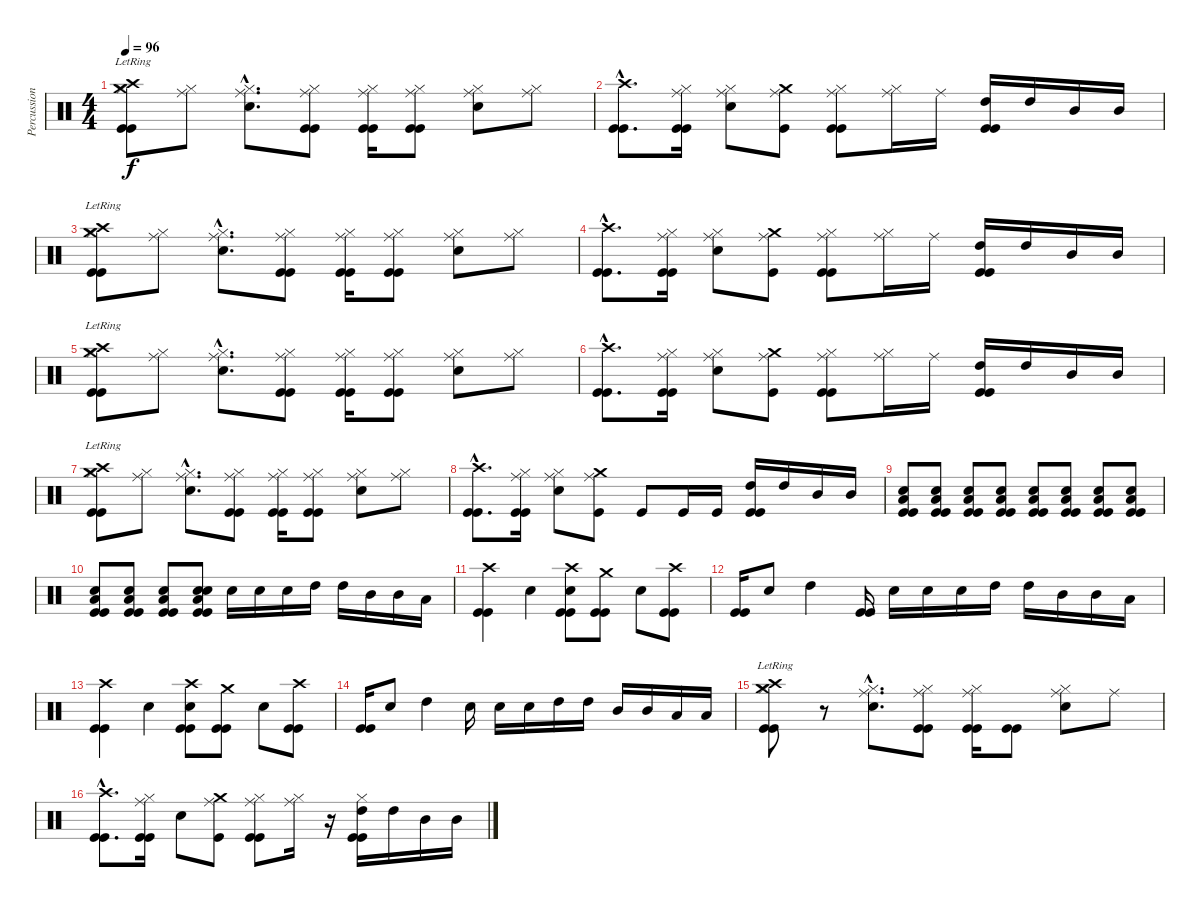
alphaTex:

\track ("Percussion" "Percussion") {instrument percussion}
\staff {score}
\articulation defaults
\ts (4 4)
\tempo 96
\clef neutral
\ks c
("Hi-Hat (closed)" "Kick (hit)" "Kick (hit)" "Crash high (hit)"{lr} "Crash medium (hit)"{lr}).8{dy f} ("Hi-Hat (closed)" "Ride (middle)").8 ("Hi-Hat (closed)"{hac} "Snare (hit) 2"{hac} "Ride (middle)"{hac}).8{d} ("Hi-Hat (closed)" "Kick (hit)" "Kick (hit)" "Ride (middle)").8 ("Hi-Hat (closed)" "Kick (hit)" "Kick (hit)" "Ride (middle)").16 ("Hi-Hat (closed)" "Kick (hit)" "Kick (hit)" "Ride (middle)").8 ("Hi-Hat (closed)" "Snare (hit) 2" "Ride (middle)").8 ("Hi-Hat (closed)" "Ride (middle)").8 |
("Kick (hit)"{hac} "Kick (hit)"{hac} "Crash high (hit)"{hac}).8{d} ("Hi-Hat (closed)" "Kick (hit)" "Kick (hit)" "Ride (middle)").16 ("Hi-Hat (closed)" "Snare (hit) 2" "Ride (middle)").8 ("Crash medium (hit)" "Kick (hit)" "Ride (middle)").8 ("Hi-Hat (closed)" "Kick (hit)" "Kick (hit)" "Ride (middle)").8 ("Hi-Hat (closed)" "Ride (middle)").16 "Ride (middle)".16 ("Kick (hit)" "Kick (hit)" "High Tom (hit)").16 "High Tom (hit)".16 "Mid Tom (hit)".16 "Mid Tom (hit)".16 |
("Hi-Hat (closed)" "Kick (hit)" "Kick (hit)" "Crash high (hit)"{lr} "Crash medium (hit)"{lr}).8 ("Hi-Hat (closed)" "Ride (middle)").8 ("Hi-Hat (closed)"{hac} "Snare (hit) 2"{hac} "Ride (middle)"{hac}).8{d} ("Hi-Hat (closed)" "Kick (hit)" "Kick (hit)" "Ride (middle)").8 ("Hi-Hat (closed)" "Kick (hit)" "Kick (hit)" "Ride (middle)").16 ("Hi-Hat (closed)" "Kick (hit)" "Kick (hit)" "Ride (middle)").8 ("Hi-Hat (closed)" "Snare (hit) 2" "Ride (middle)").8 ("Hi-Hat (closed)" "Ride (middle)").8 |
("Kick (hit)"{hac} "Kick (hit)"{hac} "Crash high (hit)"{hac}).8{d} ("Hi-Hat (closed)" "Kick (hit)" "Kick (hit)" "Ride (middle)").16 ("Hi-Hat (closed)" "Snare (hit) 2" "Ride (middle)").8 ("Crash medium (hit)" "Kick (hit)" "Ride (middle)").8 ("Hi-Hat (closed)" "Kick (hit)" "Kick (hit)" "Ride (middle)").8 ("Hi-Hat (closed)" "Ride (middle)").16 "Ride (middle)".16 ("Kick (hit)" "Kick (hit)" "High Tom (hit)").16 "High Tom (hit)".16 "Mid Tom (hit)".16 "Mid Tom (hit)".16 |
("Hi-Hat (closed)" "Kick (hit)" "Kick (hit)" "Crash high (hit)"{lr} "Crash medium (hit)"{lr}).8 ("Hi-Hat (closed)" "Ride (middle)").8 ("Hi-Hat (closed)"{hac} "Snare (hit) 2"{hac} "Ride (middle)"{hac}).8{d} ("Hi-Hat (closed)" "Kick (hit)" "Kick (hit)" "Ride (middle)").8 ("Hi-Hat (closed)" "Kick (hit)" "Kick (hit)" "Ride (middle)").16 ("Hi-Hat (closed)" "Kick (hit)" "Kick (hit)" "Ride (middle)").8 ("Hi-Hat (closed)" "Snare (hit) 2" "Ride (middle)").8 ("Hi-Hat (closed)" "Ride (middle)").8 |
("Kick (hit)"{hac} "Kick (hit)"{hac} "Crash high (hit)"{hac}).8{d} ("Hi-Hat (closed)" "Kick (hit)" "Kick (hit)" "Ride (middle)").16 ("Hi-Hat (closed)" "Snare (hit) 2" "Ride (middle)").8 ("Crash medium (hit)" "Kick (hit)" "Ride (middle)").8 ("Hi-Hat (closed)" "Kick (hit)" "Kick (hit)" "Ride (middle)").8 ("Hi-Hat (closed)" "Ride (middle)").16 "Ride (middle)".16 ("Kick (hit)" "Kick (hit)" "High Tom (hit)").16 "High Tom (hit)".16 "Mid Tom (hit)".16 "Mid Tom (hit)".16 |
("Hi-Hat (closed)" "Kick (hit)" "Kick (hit)" "Crash high (hit)"{lr} "Crash medium (hit)"{lr}).8 ("Hi-Hat (closed)" "Ride (middle)").8 ("Hi-Hat (closed)"{hac} "Snare (hit) 2"{hac} "Ride (middle)"{hac}).8{d} ("Hi-Hat (closed)" "Kick (hit)" "Kick (hit)" "Ride (middle)").8 ("Hi-Hat (closed)" "Kick (hit)" "Kick (hit)" "Ride (middle)").16 ("Hi-Hat (closed)" "Kick (hit)" "Kick (hit)" "Ride (middle)").8 ("Hi-Hat (closed)" "Snare (hit) 2" "Ride (middle)").8 ("Hi-Hat (closed)" "Ride (middle)").8 |
("Kick (hit)"{hac} "Kick (hit)"{hac} "Crash high (hit)"{hac}).8{d} ("Hi-Hat (closed)" "Kick (hit)" "Kick (hit)" "Ride (middle)").16 ("Hi-Hat (closed)" "Snare (hit) 2" "Ride (middle)").8 ("Crash medium (hit)" "Kick (hit)" "Ride (middle)").8 "Kick (hit)".8 "Kick (hit)".16 "Kick (hit)".16 ("Kick (hit)" "Kick (hit)" "High Tom (hit)").16 "High Tom (hit)".16 "Mid Tom (hit)".16 "Mid Tom (hit)".16 |
("Snare (hit) 2" "Low Floor Tom (hit)" "Kick (hit)" "Kick (hit)").8 ("Snare (hit) 2" "Low Floor Tom (hit)" "Kick (hit)" "Kick (hit)").8 ("Snare (hit) 2" "Low Floor Tom (hit)" "Kick (hit)" "Kick (hit)").8 ("Snare (hit) 2" "Low Floor Tom (hit)" "Kick (hit)" "Kick (hit)").8 ("Snare (hit) 2" "Low Floor Tom (hit)" "Kick (hit)" "Kick (hit)").8 ("Snare (hit) 2" "Low Floor Tom (hit)" "Kick (hit)" "Kick (hit)").8 ("Snare (hit) 2" "Low Floor Tom (hit)" "Kick (hit)" "Kick (hit)").8 ("Snare (hit) 2" "Low Floor Tom (hit)" "Kick (hit)" "Kick (hit)").8 |
("Snare (hit) 2" "Low Floor Tom (hit)" "Kick (hit)" "Kick (hit)").8 ("Snare (hit) 2" "Low Floor Tom (hit)" "Kick (hit)" "Kick (hit)").8 ("Snare (hit) 2" "Low Floor Tom (hit)" "Kick (hit)" "Kick (hit)").8 ("Snare (hit) 2" "Snare (hit) 2" "Low Floor Tom (hit)" "Kick (hit)" "Kick (hit)").8 "Snare (hit) 2".16 "Snare (hit) 2".16 "Snare (hit) 2".16 "High Tom (hit)".16 "High Tom (hit)".16 "Mid Tom (hit)".16 "Mid Tom (hit)".16 "Low Floor Tom (hit)".16 |
("Crash high (hit)" "Kick (hit)" "Kick (hit)").4 "Snare (hit) 2".4 ("Snare (hit) 2" "Crash high (hit)" "Kick (hit)" "Kick (hit)").8 ("Crash medium (hit)" "Kick (hit)" "Kick (hit)").8 "Snare (hit) 2".8 ("Crash high (hit)" "Kick (hit)" "Kick (hit)").8 |
("Kick (hit)" "Kick (hit)").16 "Snare (hit) 2".8 "High Tom (hit)".4 ("Kick (hit)" "Kick (hit)").16 "Snare (hit) 2".16 "Snare (hit) 2".16 "Snare (hit) 2".16 "High Tom (hit)".16 "High Tom (hit)".16 "Mid Tom (hit)".16 "Mid Tom (hit)".16 "Low Floor Tom (hit)".16 |
("Crash high (hit)" "Kick (hit)" "Kick (hit)").4 "Snare (hit) 2".4 ("Snare (hit) 2" "Crash high (hit)" "Kick (hit)" "Kick (hit)").8 ("Crash medium (hit)" "Kick (hit)" "Kick (hit)").8 "Snare (hit) 2".8 ("Crash high (hit)" "Kick (hit)" "Kick (hit)").8 |
("Kick (hit)" "Kick (hit)").16 "Snare (hit) 2".8 "High Tom (hit)".4 "Snare (hit) 2".16 "Snare (hit) 2".16 "Snare (hit) 2".16 "High Tom (hit)".16 "High Tom (hit)".16 "Mid Tom (hit)".16 "Mid Tom (hit)".16 "Low Floor Tom (hit)".16 "Low Floor Tom (hit)".16 |
("Hi-Hat (closed)" "Kick (hit)" "Kick (hit)" "Crash high (hit)"{lr} "Crash medium (hit)"{lr}).8 r.8 ("Hi-Hat (closed)"{hac} "Snare (hit) 2"{hac} "Ride (middle)"{hac}).8{d} ("Hi-Hat (closed)" "Kick (hit)" "Kick (hit)" "Ride (middle)").8 ("Hi-Hat (closed)" "Kick (hit)" "Kick (hit)" "Ride (middle)").16 ("Kick (hit)" "Kick (hit)").8 ("Hi-Hat (closed)" "Snare (hit) 2" "Ride (middle)").8 "Ride (middle)".8 |
("Kick (hit)"{hac} "Kick (hit)"{hac} "Crash high (hit)"{hac}).8{d} ("Hi-Hat (closed)" "Kick (hit)" "Kick (hit)" "Ride (middle)").16 "Snare (hit) 2".8 ("Crash medium (hit)" "Kick (hit)" "Ride (middle)").8 ("Hi-Hat (closed)" "Kick (hit)" "Kick (hit)" "Ride (middle)").8 ("Hi-Hat (closed)" "Ride (middle)").16 r.16 ("Hi-Hat (closed)" "Kick (hit)" "Kick (hit)" "High Tom (hit)").16 "High Tom (hit)".16 "Mid Tom (hit)".16 "Mid Tom (hit)".16
